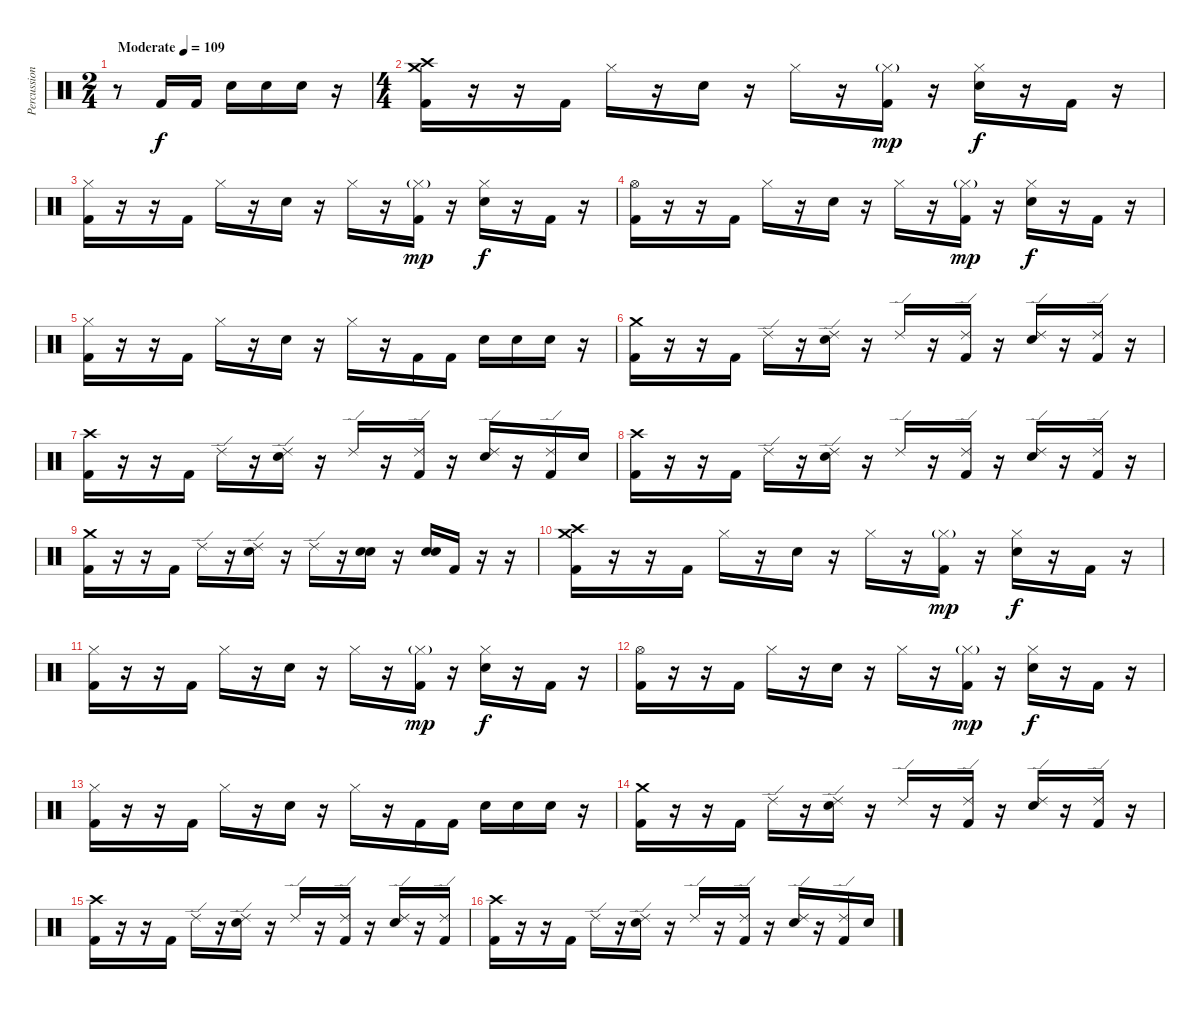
\track ("Percussion" "Percussion") {instrument percussion}
\staff {score}
\articulation defaults
\ts (2 4)
\tempo (109 "Moderate")
\clef neutral
\ks c
r.8{dy f} "Kick (hit) 2".16 "Kick (hit) 2".16 "Electric Snare (hit)".16 "Electric Snare (hit)".16 "Electric Snare (hit)".16 r.16 |
\ts (4 4)
("Crash medium (hit)" "Crash high (hit)" "Kick (hit) 2").16 r.16 r.16 "Kick (hit) 2".16 "Hi-Hat (closed)".16 r.16 "Electric Snare (hit)".16 r.16 "Hi-Hat (closed)".16 r.16 ("Hi-Hat (closed)"{g} "Kick (hit) 2").16{dy mp} r.16 ("Hi-Hat (closed)" "Electric Snare (hit)").16{dy f} r.16 "Kick (hit) 2".16 r.16 |
("Hi-Hat (closed)" "Kick (hit) 2").16 r.16 r.16 "Kick (hit) 2".16 "Hi-Hat (closed)".16 r.16 "Electric Snare (hit)".16 r.16 "Hi-Hat (closed)".16 r.16 ("Hi-Hat (closed)"{g} "Kick (hit) 2").16{dy mp} r.16 ("Hi-Hat (closed)" "Electric Snare (hit)").16{dy f} r.16 "Kick (hit) 2".16 r.16 |
("Hi-Hat (open)" "Kick (hit) 2").16 r.16 r.16 "Kick (hit) 2".16 "Hi-Hat (closed)".16 r.16 "Electric Snare (hit)".16 r.16 "Hi-Hat (closed)".16 r.16 ("Hi-Hat (closed)"{g} "Kick (hit) 2").16{dy mp} r.16 ("Hi-Hat (closed)" "Electric Snare (hit)").16{dy f} r.16 "Kick (hit) 2".16 r.16 |
("Hi-Hat (closed)" "Kick (hit) 2").16 r.16 r.16 "Kick (hit) 2".16 "Hi-Hat (closed)".16 r.16 "Electric Snare (hit)".16 r.16 "Hi-Hat (closed)".16 r.16 "Kick (hit) 2".16 "Kick (hit) 2".16 "Electric Snare (hit)".16 "Electric Snare (hit)".16 "Electric Snare (hit)".16 r.16 |
("Crash medium (hit)" "Kick (hit) 2").16 r.16 r.16 "Kick (hit) 2".16 "Ride (edge) 2".16 r.16 ("Ride (edge) 2" "Electric Snare (hit)").16 r.16 "Ride (edge) 2".16 r.16 ("Ride (edge) 2" "Kick (hit) 2").16 r.16 ("Ride (edge) 2" "Electric Snare (hit)").16 r.16 ("Ride (edge) 2" "Kick (hit) 2").16 r.16 |
("Crash high (hit)" "Kick (hit) 2").16 r.16 r.16 "Kick (hit) 2".16 "Ride (edge) 2".16 r.16 ("Ride (edge) 2" "Electric Snare (hit)").16 r.16 "Ride (edge) 2".16 r.16 ("Ride (edge) 2" "Kick (hit) 2").16 r.16 ("Ride (edge) 2" "Electric Snare (hit)").16 r.16 ("Ride (edge) 2" "Kick (hit) 2").16 "Electric Snare (hit)".16 |
("Crash high (hit)" "Kick (hit) 2").16 r.16 r.16 "Kick (hit) 2".16 "Ride (edge) 2".16 r.16 ("Ride (edge) 2" "Electric Snare (hit)").16 r.16 "Ride (edge) 2".16 r.16 ("Ride (edge) 2" "Kick (hit) 2").16 r.16 ("Ride (edge) 2" "Electric Snare (hit)").16 r.16 ("Ride (edge) 2" "Kick (hit) 2").16 r.16 |
("Crash medium (hit)" "Kick (hit) 2").16 r.16 r.16 "Kick (hit) 2".16 "Ride (edge) 2".16 r.16 ("Ride (edge) 2" "Electric Snare (hit)").16 r.16 "Ride (edge) 2".16 r.16 ("Electric Snare (hit)" "Electric Snare (hit)").16 r.16 ("Electric Snare (hit)" "Electric Snare (hit)").16 "Kick (hit) 2".16 r.16 r.16 |
("Crash medium (hit)" "Crash high (hit)" "Kick (hit) 2").16 r.16 r.16 "Kick (hit) 2".16 "Hi-Hat (closed)".16 r.16 "Electric Snare (hit)".16 r.16 "Hi-Hat (closed)".16 r.16 ("Hi-Hat (closed)"{g} "Kick (hit) 2").16{dy mp} r.16 ("Hi-Hat (closed)" "Electric Snare (hit)").16{dy f} r.16 "Kick (hit) 2".16 r.16 |
("Hi-Hat (closed)" "Kick (hit) 2").16 r.16 r.16 "Kick (hit) 2".16 "Hi-Hat (closed)".16 r.16 "Electric Snare (hit)".16 r.16 "Hi-Hat (closed)".16 r.16 ("Hi-Hat (closed)"{g} "Kick (hit) 2").16{dy mp} r.16 ("Hi-Hat (closed)" "Electric Snare (hit)").16{dy f} r.16 "Kick (hit) 2".16 r.16 |
("Hi-Hat (open)" "Kick (hit) 2").16 r.16 r.16 "Kick (hit) 2".16 "Hi-Hat (closed)".16 r.16 "Electric Snare (hit)".16 r.16 "Hi-Hat (closed)".16 r.16 ("Hi-Hat (closed)"{g} "Kick (hit) 2").16{dy mp} r.16 ("Hi-Hat (closed)" "Electric Snare (hit)").16{dy f} r.16 "Kick (hit) 2".16 r.16 |
("Hi-Hat (closed)" "Kick (hit) 2").16 r.16 r.16 "Kick (hit) 2".16 "Hi-Hat (closed)".16 r.16 "Electric Snare (hit)".16 r.16 "Hi-Hat (closed)".16 r.16 "Kick (hit) 2".16 "Kick (hit) 2".16 "Electric Snare (hit)".16 "Electric Snare (hit)".16 "Electric Snare (hit)".16 r.16 |
("Crash medium (hit)" "Kick (hit) 2").16 r.16 r.16 "Kick (hit) 2".16 "Ride (edge) 2".16 r.16 ("Ride (edge) 2" "Electric Snare (hit)").16 r.16 "Ride (edge) 2".16 r.16 ("Ride (edge) 2" "Kick (hit) 2").16 r.16 ("Ride (edge) 2" "Electric Snare (hit)").16 r.16 ("Ride (edge) 2" "Kick (hit) 2").16 r.16 |
("Crash high (hit)" "Kick (hit) 2").16 r.16 r.16 "Kick (hit) 2".16 "Ride (edge) 2".16 r.16 ("Ride (edge) 2" "Electric Snare (hit)").16 r.16 "Ride (edge) 2".16 r.16 ("Ride (edge) 2" "Kick (hit) 2").16 r.16 ("Ride (edge) 2" "Electric Snare (hit)").16 r.16 ("Ride (edge) 2" "Kick (hit) 2").16 |
("Crash high (hit)" "Kick (hit) 2").16 r.16 r.16 "Kick (hit) 2".16 "Ride (edge) 2".16 r.16 ("Ride (edge) 2" "Electric Snare (hit)").16 r.16 "Ride (edge) 2".16 r.16 ("Ride (edge) 2" "Kick (hit) 2").16 r.16 ("Ride (edge) 2" "Electric Snare (hit)").16 r.16 ("Ride (edge) 2" "Kick (hit) 2").16 "Electric Snare (hit)".16
